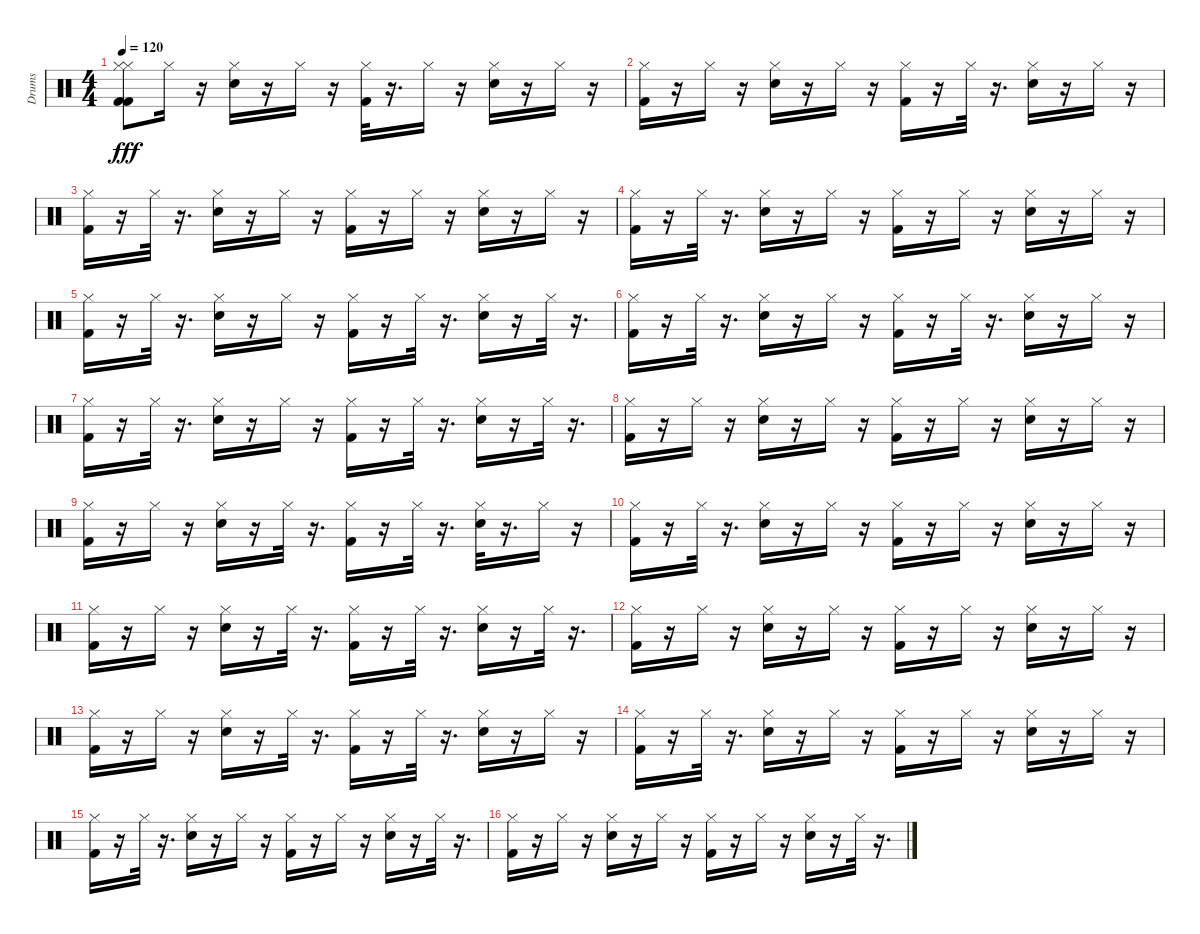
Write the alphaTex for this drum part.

\track ("Drums" "Drums") {instrument percussion}
\staff {score}
\articulation defaults
\ts (4 4)
\tempo 120
\clef neutral
\ks c
("Hi-Hat (closed)" "Kick (hit) 2" "Hi-Hat (closed)" "Kick (hit) 2").8{dy fff} "Hi-Hat (closed)".16 r.16 ("Snare (hit) 2" "Hi-Hat (closed)").16 r.16 "Hi-Hat (closed)".16 r.16 ("Hi-Hat (closed)" "Kick (hit) 2").32 r.16{d} "Hi-Hat (closed)".16 r.16 ("Snare (hit) 2" "Hi-Hat (closed)").16 r.16 "Hi-Hat (closed)".16 r.16 |
("Hi-Hat (closed)" "Kick (hit) 2").16 r.16 "Hi-Hat (closed)".16 r.16 ("Snare (hit) 2" "Hi-Hat (closed)").16 r.16 "Hi-Hat (closed)".16 r.16 ("Hi-Hat (closed)" "Kick (hit) 2").16 r.16 "Hi-Hat (closed)".32 r.16{d} ("Snare (hit) 2" "Hi-Hat (closed)").16 r.16 "Hi-Hat (closed)".16 r.16 |
("Hi-Hat (closed)" "Kick (hit) 2").16 r.16 "Hi-Hat (closed)".32 r.16{d} ("Snare (hit) 2" "Hi-Hat (closed)").16 r.16 "Hi-Hat (closed)".16 r.16 ("Hi-Hat (closed)" "Kick (hit) 2").16 r.16 "Hi-Hat (closed)".16 r.16 ("Snare (hit) 2" "Hi-Hat (closed)").16 r.16 "Hi-Hat (closed)".16 r.16 |
("Hi-Hat (closed)" "Kick (hit) 2").16 r.16 "Hi-Hat (closed)".32 r.16{d} ("Snare (hit) 2" "Hi-Hat (closed)").16 r.16 "Hi-Hat (closed)".16 r.16 ("Hi-Hat (closed)" "Kick (hit) 2").16 r.16 "Hi-Hat (closed)".16 r.16 ("Snare (hit) 2" "Hi-Hat (closed)").16 r.16 "Hi-Hat (closed)".16 r.16 |
("Hi-Hat (closed)" "Kick (hit) 2").16 r.16 "Hi-Hat (closed)".32 r.16{d} ("Snare (hit) 2" "Hi-Hat (closed)").16 r.16 "Hi-Hat (closed)".16 r.16 ("Hi-Hat (closed)" "Kick (hit) 2").16 r.16 "Hi-Hat (closed)".32 r.16{d} ("Snare (hit) 2" "Hi-Hat (closed)").16 r.16 "Hi-Hat (closed)".32 r.16{d} |
("Hi-Hat (closed)" "Kick (hit) 2").16 r.16 "Hi-Hat (closed)".32 r.16{d} ("Snare (hit) 2" "Hi-Hat (closed)").16 r.16 "Hi-Hat (closed)".16 r.16 ("Hi-Hat (closed)" "Kick (hit) 2").16 r.16 "Hi-Hat (closed)".32 r.16{d} ("Snare (hit) 2" "Hi-Hat (closed)").16 r.16 "Hi-Hat (closed)".16 r.16 |
("Hi-Hat (closed)" "Kick (hit) 2").16 r.16 "Hi-Hat (closed)".32 r.16{d} ("Snare (hit) 2" "Hi-Hat (closed)").16 r.16 "Hi-Hat (closed)".16 r.16 ("Hi-Hat (closed)" "Kick (hit) 2").16 r.16 "Hi-Hat (closed)".32 r.16{d} ("Snare (hit) 2" "Hi-Hat (closed)").16 r.16 "Hi-Hat (closed)".32 r.16{d} |
("Hi-Hat (closed)" "Kick (hit) 2").16 r.16 "Hi-Hat (closed)".16 r.16 ("Snare (hit) 2" "Hi-Hat (closed)").16 r.16 "Hi-Hat (closed)".16 r.16 ("Hi-Hat (closed)" "Kick (hit) 2").16 r.16 "Hi-Hat (closed)".16 r.16 ("Snare (hit) 2" "Hi-Hat (closed)").16 r.16 "Hi-Hat (closed)".16 r.16 |
("Hi-Hat (closed)" "Kick (hit) 2").16 r.16 "Hi-Hat (closed)".16 r.16 ("Snare (hit) 2" "Hi-Hat (closed)").16 r.16 "Hi-Hat (closed)".32 r.16{d} ("Hi-Hat (closed)" "Kick (hit) 2").16 r.16 "Hi-Hat (closed)".32 r.16{d} ("Snare (hit) 2" "Hi-Hat (closed)").32 r.16{d} "Hi-Hat (closed)".16 r.16 |
("Hi-Hat (closed)" "Kick (hit) 2").16 r.16 "Hi-Hat (closed)".32 r.16{d} ("Snare (hit) 2" "Hi-Hat (closed)").16 r.16 "Hi-Hat (closed)".16 r.16 ("Hi-Hat (closed)" "Kick (hit) 2").16 r.16 "Hi-Hat (closed)".16 r.16 ("Snare (hit) 2" "Hi-Hat (closed)").16 r.16 "Hi-Hat (closed)".16 r.16 |
("Hi-Hat (closed)" "Kick (hit) 2").16 r.16 "Hi-Hat (closed)".16 r.16 ("Snare (hit) 2" "Hi-Hat (closed)").16 r.16 "Hi-Hat (closed)".32 r.16{d} ("Hi-Hat (closed)" "Kick (hit) 2").16 r.16 "Hi-Hat (closed)".32 r.16{d} ("Snare (hit) 2" "Hi-Hat (closed)").16 r.16 "Hi-Hat (closed)".32 r.16{d} |
("Hi-Hat (closed)" "Kick (hit) 2").16 r.16 "Hi-Hat (closed)".16 r.16 ("Snare (hit) 2" "Hi-Hat (closed)").16 r.16 "Hi-Hat (closed)".16 r.16 ("Hi-Hat (closed)" "Kick (hit) 2").16 r.16 "Hi-Hat (closed)".16 r.16 ("Snare (hit) 2" "Hi-Hat (closed)").16 r.16 "Hi-Hat (closed)".16 r.16 |
("Hi-Hat (closed)" "Kick (hit) 2").16 r.16 "Hi-Hat (closed)".16 r.16 ("Snare (hit) 2" "Hi-Hat (closed)").16 r.16 "Hi-Hat (closed)".32 r.16{d} ("Hi-Hat (closed)" "Kick (hit) 2").16 r.16 "Hi-Hat (closed)".32 r.16{d} ("Snare (hit) 2" "Hi-Hat (closed)").16 r.16 "Hi-Hat (closed)".16 r.16 |
("Hi-Hat (closed)" "Kick (hit) 2").16 r.16 "Hi-Hat (closed)".32 r.16{d} ("Snare (hit) 2" "Hi-Hat (closed)").16 r.16 "Hi-Hat (closed)".16 r.16 ("Hi-Hat (closed)" "Kick (hit) 2").16 r.16 "Hi-Hat (closed)".16 r.16 ("Snare (hit) 2" "Hi-Hat (closed)").16 r.16 "Hi-Hat (closed)".16 r.16 |
("Hi-Hat (closed)" "Kick (hit) 2").16 r.16 "Hi-Hat (closed)".32 r.16{d} ("Snare (hit) 2" "Hi-Hat (closed)").16 r.16 "Hi-Hat (closed)".16 r.16 ("Hi-Hat (closed)" "Kick (hit) 2").16 r.16 "Hi-Hat (closed)".16 r.16 ("Snare (hit) 2" "Hi-Hat (closed)").16 r.16 "Hi-Hat (closed)".32 r.16{d} |
("Hi-Hat (closed)" "Kick (hit) 2").16 r.16 "Hi-Hat (closed)".16 r.16 ("Snare (hit) 2" "Hi-Hat (closed)").16 r.16 "Hi-Hat (closed)".16 r.16 ("Hi-Hat (closed)" "Kick (hit) 2").16 r.16 "Hi-Hat (closed)".16 r.16 ("Snare (hit) 2" "Hi-Hat (closed)").16 r.16 "Hi-Hat (closed)".32 r.16{d}
